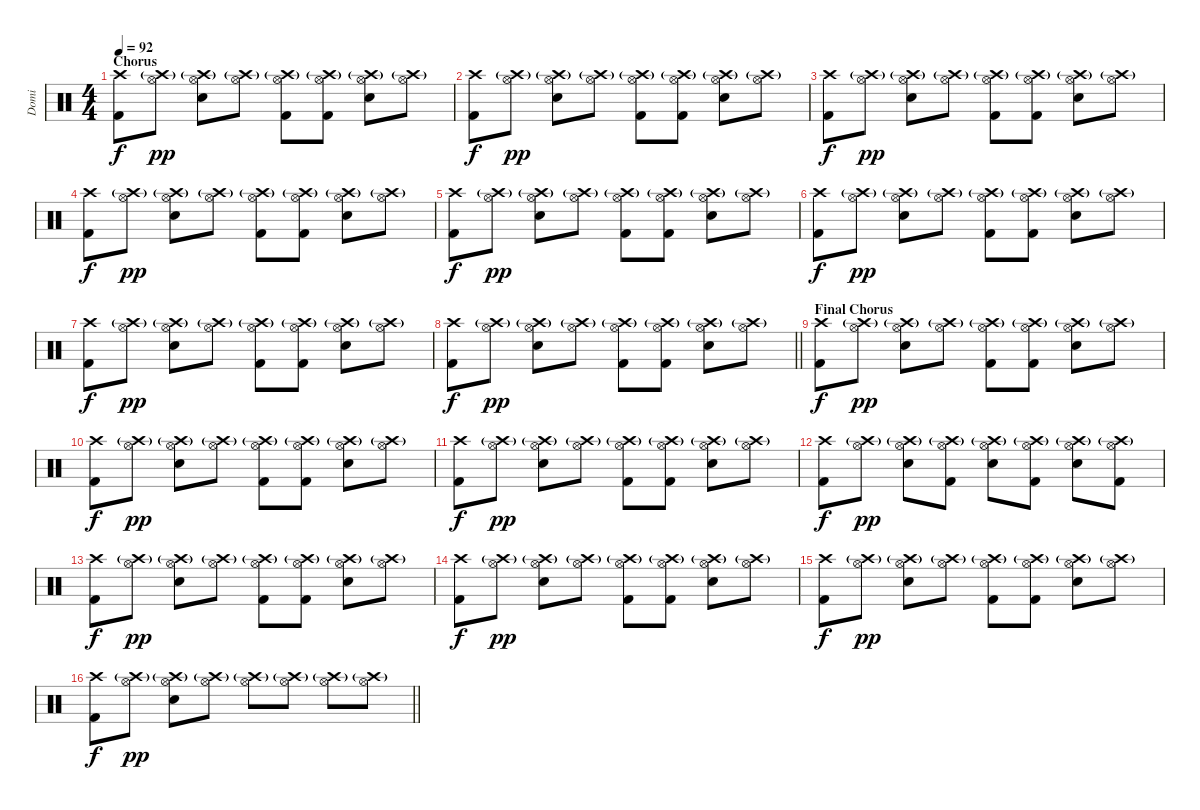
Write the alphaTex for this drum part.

\track ("Domi" "Domi") {instrument percussion}
\staff {score}
\articulation defaults
\ts (4 4)
\section ("" "Chorus")
\tempo 92
\clef neutral
\ks c
("Crash high (hit)" "Kick (hit) 2").8{dy f} ("Hi-Hat (open)" "Crash high (hit)"{g}).8{dy pp} ("Hi-Hat (open)" "Crash high (hit)"{g} "Electric Snare (hit)").8 ("Hi-Hat (open)" "Crash high (hit)"{g}).8 ("Hi-Hat (open)" "Crash high (hit)"{g} "Kick (hit) 2").8 ("Hi-Hat (open)" "Crash high (hit)"{g} "Kick (hit) 2").8 ("Hi-Hat (open)" "Crash high (hit)"{g} "Electric Snare (hit)").8 ("Hi-Hat (open)" "Crash high (hit)"{g}).8 |
("Crash high (hit)" "Kick (hit) 2").8{dy f} ("Hi-Hat (open)" "Crash high (hit)"{g}).8{dy pp} ("Hi-Hat (open)" "Crash high (hit)"{g} "Electric Snare (hit)").8 ("Hi-Hat (open)" "Crash high (hit)"{g}).8 ("Hi-Hat (open)" "Crash high (hit)"{g} "Kick (hit) 2").8 ("Hi-Hat (open)" "Crash high (hit)"{g} "Kick (hit) 2").8 ("Hi-Hat (open)" "Crash high (hit)"{g} "Electric Snare (hit)").8 ("Hi-Hat (open)" "Crash high (hit)"{g}).8 |
("Crash high (hit)" "Kick (hit) 2").8{dy f} ("Hi-Hat (open)" "Crash high (hit)"{g}).8{dy pp} ("Hi-Hat (open)" "Crash high (hit)"{g} "Electric Snare (hit)").8 ("Hi-Hat (open)" "Crash high (hit)"{g}).8 ("Hi-Hat (open)" "Crash high (hit)"{g} "Kick (hit) 2").8 ("Hi-Hat (open)" "Crash high (hit)"{g} "Kick (hit) 2").8 ("Hi-Hat (open)" "Crash high (hit)"{g} "Electric Snare (hit)").8 ("Hi-Hat (open)" "Crash high (hit)"{g}).8 |
("Crash high (hit)" "Kick (hit) 2").8{dy f} ("Hi-Hat (open)" "Crash high (hit)"{g}).8{dy pp} ("Hi-Hat (open)" "Crash high (hit)"{g} "Electric Snare (hit)").8 ("Hi-Hat (open)" "Crash high (hit)"{g}).8 ("Hi-Hat (open)" "Crash high (hit)"{g} "Kick (hit) 2").8 ("Hi-Hat (open)" "Crash high (hit)"{g} "Kick (hit) 2").8 ("Hi-Hat (open)" "Crash high (hit)"{g} "Electric Snare (hit)").8 ("Hi-Hat (open)" "Crash high (hit)"{g}).8 |
("Crash high (hit)" "Kick (hit) 2").8{dy f} ("Hi-Hat (open)" "Crash high (hit)"{g}).8{dy pp} ("Hi-Hat (open)" "Crash high (hit)"{g} "Electric Snare (hit)").8 ("Hi-Hat (open)" "Crash high (hit)"{g}).8 ("Hi-Hat (open)" "Crash high (hit)"{g} "Kick (hit) 2").8 ("Hi-Hat (open)" "Crash high (hit)"{g} "Kick (hit) 2").8 ("Hi-Hat (open)" "Crash high (hit)"{g} "Electric Snare (hit)").8 ("Hi-Hat (open)" "Crash high (hit)"{g}).8 |
("Crash high (hit)" "Kick (hit) 2").8{dy f} ("Hi-Hat (open)" "Crash high (hit)"{g}).8{dy pp} ("Hi-Hat (open)" "Crash high (hit)"{g} "Electric Snare (hit)").8 ("Hi-Hat (open)" "Crash high (hit)"{g}).8 ("Hi-Hat (open)" "Crash high (hit)"{g} "Kick (hit) 2").8 ("Hi-Hat (open)" "Crash high (hit)"{g} "Kick (hit) 2").8 ("Hi-Hat (open)" "Crash high (hit)"{g} "Electric Snare (hit)").8 ("Hi-Hat (open)" "Crash high (hit)"{g}).8 |
("Crash high (hit)" "Kick (hit) 2").8{dy f} ("Hi-Hat (open)" "Crash high (hit)"{g}).8{dy pp} ("Hi-Hat (open)" "Crash high (hit)"{g} "Electric Snare (hit)").8 ("Hi-Hat (open)" "Crash high (hit)"{g}).8 ("Hi-Hat (open)" "Crash high (hit)"{g} "Kick (hit) 2").8 ("Hi-Hat (open)" "Crash high (hit)"{g} "Kick (hit) 2").8 ("Hi-Hat (open)" "Crash high (hit)"{g} "Electric Snare (hit)").8 ("Hi-Hat (open)" "Crash high (hit)"{g}).8 |
\barLineRight lightlight
("Crash high (hit)" "Kick (hit) 2").8{dy f} ("Hi-Hat (open)" "Crash high (hit)"{g}).8{dy pp} ("Hi-Hat (open)" "Crash high (hit)"{g} "Electric Snare (hit)").8 ("Hi-Hat (open)" "Crash high (hit)"{g}).8 ("Hi-Hat (open)" "Crash high (hit)"{g} "Kick (hit) 2").8 ("Hi-Hat (open)" "Crash high (hit)"{g} "Kick (hit) 2").8 ("Hi-Hat (open)" "Crash high (hit)"{g} "Electric Snare (hit)").8 ("Hi-Hat (open)" "Crash high (hit)"{g}).8 |
\section ("" "Final Chorus")
("Crash high (hit)" "Kick (hit) 2").8{dy f} ("Hi-Hat (open)" "Crash high (hit)"{g}).8{dy pp} ("Hi-Hat (open)" "Crash high (hit)"{g} "Electric Snare (hit)").8 ("Hi-Hat (open)" "Crash high (hit)"{g}).8 ("Hi-Hat (open)" "Crash high (hit)"{g} "Kick (hit) 2").8 ("Hi-Hat (open)" "Crash high (hit)"{g} "Kick (hit) 2").8 ("Hi-Hat (open)" "Crash high (hit)"{g} "Electric Snare (hit)").8 ("Hi-Hat (open)" "Crash high (hit)"{g}).8 |
("Crash high (hit)" "Kick (hit) 2").8{dy f} ("Hi-Hat (open)" "Crash high (hit)"{g}).8{dy pp} ("Hi-Hat (open)" "Crash high (hit)"{g} "Electric Snare (hit)").8 ("Hi-Hat (open)" "Crash high (hit)"{g}).8 ("Hi-Hat (open)" "Crash high (hit)"{g} "Kick (hit) 2").8 ("Hi-Hat (open)" "Crash high (hit)"{g} "Kick (hit) 2").8 ("Hi-Hat (open)" "Crash high (hit)"{g} "Electric Snare (hit)").8 ("Hi-Hat (open)" "Crash high (hit)"{g}).8 |
("Crash high (hit)" "Kick (hit) 2").8{dy f} ("Hi-Hat (open)" "Crash high (hit)"{g}).8{dy pp} ("Hi-Hat (open)" "Crash high (hit)"{g} "Electric Snare (hit)").8 ("Hi-Hat (open)" "Crash high (hit)"{g}).8 ("Hi-Hat (open)" "Crash high (hit)"{g} "Kick (hit) 2").8 ("Hi-Hat (open)" "Crash high (hit)"{g} "Kick (hit) 2").8 ("Hi-Hat (open)" "Crash high (hit)"{g} "Electric Snare (hit)").8 ("Hi-Hat (open)" "Crash high (hit)"{g}).8 |
("Crash high (hit)" "Kick (hit) 2").8{dy f} ("Hi-Hat (open)" "Crash high (hit)"{g}).8{dy pp} ("Hi-Hat (open)" "Crash high (hit)"{g} "Electric Snare (hit)").8 ("Hi-Hat (open)" "Crash high (hit)"{g} "Kick (hit) 2").8 ("Hi-Hat (open)" "Crash high (hit)"{g} "Electric Snare (hit)").8 ("Hi-Hat (open)" "Crash high (hit)"{g} "Kick (hit) 2").8 ("Hi-Hat (open)" "Crash high (hit)"{g} "Electric Snare (hit)").8 ("Hi-Hat (open)" "Crash high (hit)"{g} "Kick (hit) 2").8 |
("Crash high (hit)" "Kick (hit) 2").8{dy f} ("Hi-Hat (open)" "Crash high (hit)"{g}).8{dy pp} ("Hi-Hat (open)" "Crash high (hit)"{g} "Electric Snare (hit)").8 ("Hi-Hat (open)" "Crash high (hit)"{g}).8 ("Hi-Hat (open)" "Crash high (hit)"{g} "Kick (hit) 2").8 ("Hi-Hat (open)" "Crash high (hit)"{g} "Kick (hit) 2").8 ("Hi-Hat (open)" "Crash high (hit)"{g} "Electric Snare (hit)").8 ("Hi-Hat (open)" "Crash high (hit)"{g}).8 |
("Crash high (hit)" "Kick (hit) 2").8{dy f} ("Hi-Hat (open)" "Crash high (hit)"{g}).8{dy pp} ("Hi-Hat (open)" "Crash high (hit)"{g} "Electric Snare (hit)").8 ("Hi-Hat (open)" "Crash high (hit)"{g}).8 ("Hi-Hat (open)" "Crash high (hit)"{g} "Kick (hit) 2").8 ("Hi-Hat (open)" "Crash high (hit)"{g} "Kick (hit) 2").8 ("Hi-Hat (open)" "Crash high (hit)"{g} "Electric Snare (hit)").8 ("Hi-Hat (open)" "Crash high (hit)"{g}).8 |
("Crash high (hit)" "Kick (hit) 2").8{dy f} ("Hi-Hat (open)" "Crash high (hit)"{g}).8{dy pp} ("Hi-Hat (open)" "Crash high (hit)"{g} "Electric Snare (hit)").8 ("Hi-Hat (open)" "Crash high (hit)"{g}).8 ("Hi-Hat (open)" "Crash high (hit)"{g} "Kick (hit) 2").8 ("Hi-Hat (open)" "Crash high (hit)"{g} "Kick (hit) 2").8 ("Hi-Hat (open)" "Crash high (hit)"{g} "Electric Snare (hit)").8 ("Hi-Hat (open)" "Crash high (hit)"{g}).8 |
\barLineRight lightlight
("Crash high (hit)" "Kick (hit) 2").8{dy f} ("Hi-Hat (open)" "Crash high (hit)"{g}).8{dy pp} ("Hi-Hat (open)" "Crash high (hit)"{g} "Electric Snare (hit)").8 ("Hi-Hat (open)" "Crash high (hit)"{g}).8 ("Hi-Hat (open)" "Crash high (hit)"{g}).8 ("Hi-Hat (open)" "Crash high (hit)"{g}).8 ("Hi-Hat (open)" "Crash high (hit)"{g}).8 ("Hi-Hat (open)" "Crash high (hit)"{g}).8
